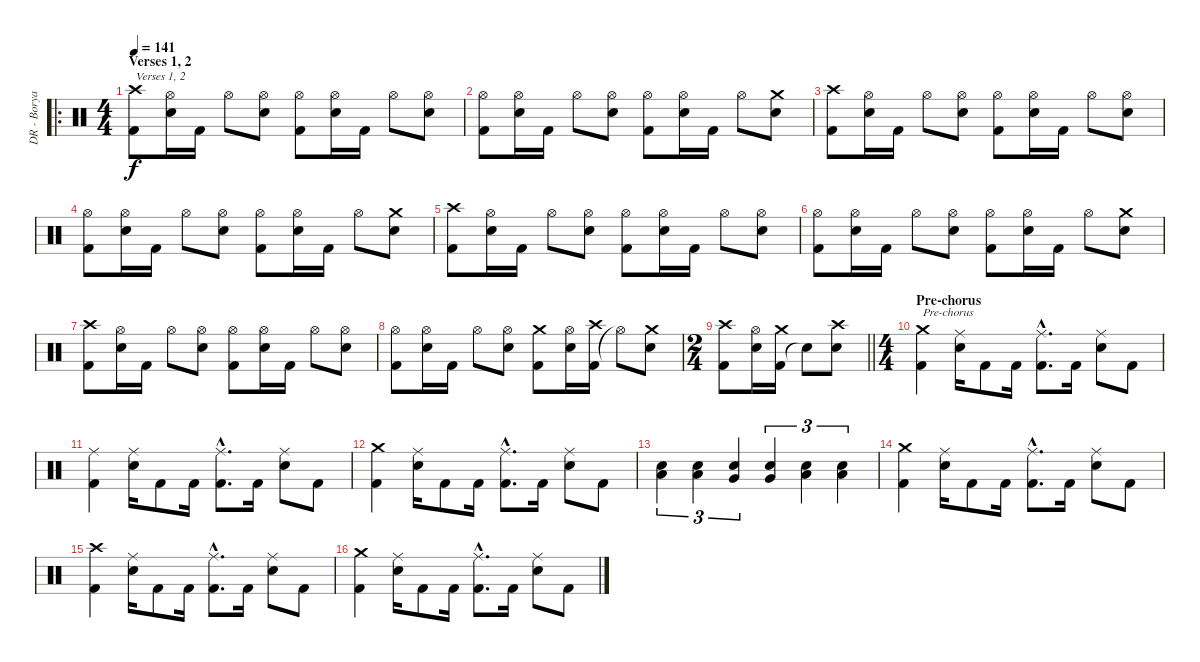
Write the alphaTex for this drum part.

\track ("DR - Borya" "DR - Borya") {instrument percussion}
\staff {score}
\articulation defaults
\ro
\ts (4 4)
\section ("" "Verses 1, 2")
\tempo 141
\clef neutral
\ks c
("Kick (hit) 2" "Crash high (hit)").8{txt "Verses 1, 2" dy f} ("Electric Snare (hit)" "Hi-Hat (open)").16 "Kick (hit) 2".16 "Hi-Hat (open)".8 ("Electric Snare (hit)" "Hi-Hat (open)").8 ("Kick (hit) 2" "Hi-Hat (open)").8 ("Electric Snare (hit)" "Hi-Hat (open)").16 "Kick (hit) 2".16 "Hi-Hat (open)".8 ("Electric Snare (hit)" "Hi-Hat (open)").8 |
("Kick (hit) 2" "Hi-Hat (open)").8 ("Electric Snare (hit)" "Hi-Hat (open)").16 "Kick (hit) 2".16 "Hi-Hat (open)".8 ("Electric Snare (hit)" "Hi-Hat (open)").8 ("Kick (hit) 2" "Hi-Hat (open)").8 ("Electric Snare (hit)" "Hi-Hat (open)").16 "Kick (hit) 2".16 "Hi-Hat (open)".8 ("Electric Snare (hit)" "Crash medium (hit)").8 |
("Kick (hit) 2" "Crash high (hit)").8 ("Electric Snare (hit)" "Hi-Hat (open)").16 "Kick (hit) 2".16 "Hi-Hat (open)".8 ("Electric Snare (hit)" "Hi-Hat (open)").8 ("Kick (hit) 2" "Hi-Hat (open)").8 ("Electric Snare (hit)" "Hi-Hat (open)").16 "Kick (hit) 2".16 "Hi-Hat (open)".8 ("Electric Snare (hit)" "Hi-Hat (open)").8 |
("Kick (hit) 2" "Hi-Hat (open)").8 ("Electric Snare (hit)" "Hi-Hat (open)").16 "Kick (hit) 2".16 "Hi-Hat (open)".8 ("Electric Snare (hit)" "Hi-Hat (open)").8 ("Kick (hit) 2" "Hi-Hat (open)").8 ("Electric Snare (hit)" "Hi-Hat (open)").16 "Kick (hit) 2".16 "Hi-Hat (open)".8 ("Electric Snare (hit)" "Crash medium (hit)").8 |
("Kick (hit) 2" "Crash high (hit)").8 ("Electric Snare (hit)" "Hi-Hat (open)").16 "Kick (hit) 2".16 "Hi-Hat (open)".8 ("Electric Snare (hit)" "Hi-Hat (open)").8 ("Kick (hit) 2" "Hi-Hat (open)").8 ("Electric Snare (hit)" "Hi-Hat (open)").16 "Kick (hit) 2".16 "Hi-Hat (open)".8 ("Electric Snare (hit)" "Hi-Hat (open)").8 |
("Kick (hit) 2" "Hi-Hat (open)").8 ("Electric Snare (hit)" "Hi-Hat (open)").16 "Kick (hit) 2".16 "Hi-Hat (open)".8 ("Electric Snare (hit)" "Hi-Hat (open)").8 ("Kick (hit) 2" "Hi-Hat (open)").8 ("Electric Snare (hit)" "Hi-Hat (open)").16 "Kick (hit) 2".16 "Hi-Hat (open)".8 ("Electric Snare (hit)" "Crash medium (hit)").8 |
("Kick (hit) 2" "Crash high (hit)").8 ("Electric Snare (hit)" "Hi-Hat (open)").16 "Kick (hit) 2".16 "Hi-Hat (open)".8 ("Electric Snare (hit)" "Hi-Hat (open)").8 ("Kick (hit) 2" "Hi-Hat (open)").8 ("Electric Snare (hit)" "Hi-Hat (open)").16 "Kick (hit) 2".16 "Hi-Hat (open)".8 ("Electric Snare (hit)" "Hi-Hat (open)").8 |
("Kick (hit) 2" "Hi-Hat (open)").8 ("Electric Snare (hit)" "Hi-Hat (open)").16 "Kick (hit) 2".16 "Hi-Hat (open)".8 ("Electric Snare (hit)" "Hi-Hat (open)").8 ("Kick (hit) 2" "Crash medium (hit)").8 ("Electric Snare (hit)" "Hi-Hat (open)").16 ("Kick (hit) 2" "Crash high (hit)").16 "Hi-Hat (open)"{t}.8 ("Electric Snare (hit)" "Crash medium (hit)").8 |
\ts (2 4)
\barLineRight lightlight
("Kick (hit) 2" "Crash high (hit)").8 ("Electric Snare (hit)" "Hi-Hat (open)").16 ("Kick (hit) 2" "Crash medium (hit)").16 "Snare (hit)"{t}.8 ("Electric Snare (hit)" "Crash high (hit)").8 |
\ts (4 4)
\section ("" "Pre-chorus")
("Kick (hit) 2" "Crash medium (hit)").4{txt "Pre-chorus"} ("Electric Snare (hit)" "Ride (middle)").16 "Kick (hit) 2".8 "Kick (hit) 2".16 ("Kick (hit) 2"{hac} "Ride (middle)"{hac}).8{d} "Kick (hit) 2".16 ("Electric Snare (hit)" "Ride (middle)").8 "Kick (hit) 2".8 |
("Kick (hit) 2" "Ride (middle)").4 ("Electric Snare (hit)" "Ride (middle)").16 "Kick (hit) 2".8 "Kick (hit) 2".16 ("Kick (hit) 2"{hac} "Ride (middle)"{hac}).8{d} "Kick (hit) 2".16 ("Electric Snare (hit)" "Ride (middle)").8 "Kick (hit) 2".8 |
("Kick (hit) 2" "Crash medium (hit)").4 ("Electric Snare (hit)" "Ride (middle)").16 "Kick (hit) 2".8 "Kick (hit) 2".16 ("Kick (hit) 2"{hac} "Ride (middle)"{hac}).8{d} "Kick (hit) 2".16 ("Electric Snare (hit)" "Ride (middle)").8 "Kick (hit) 2".8 |
("Electric Snare (hit)" "Low Tom (hit)").4{tu (3 2)} ("Electric Snare (hit)" "Low Tom (hit)").4{tu (3 2)} ("Electric Snare (hit)" "Very Low Tom (hit)").4{tu (3 2)} ("Electric Snare (hit)" "Very Low Tom (hit)").4{tu (3 2)} ("Electric Snare (hit)" "Low Floor Tom (hit)").4{tu (3 2)} ("Electric Snare (hit)" "Low Floor Tom (hit)").4{tu (3 2)} |
("Kick (hit) 2" "Crash medium (hit)").4 ("Electric Snare (hit)" "Ride (middle)").16 "Kick (hit) 2".8 "Kick (hit) 2".16 ("Kick (hit) 2"{hac} "Ride (middle)"{hac}).8{d} "Kick (hit) 2".16 ("Electric Snare (hit)" "Ride (middle)").8 "Kick (hit) 2".8 |
("Kick (hit) 2" "Crash high (hit)").4 ("Electric Snare (hit)" "Ride (middle)").16 "Kick (hit) 2".8 "Kick (hit) 2".16 ("Kick (hit) 2"{hac} "Ride (middle)"{hac}).8{d} "Kick (hit) 2".16 ("Electric Snare (hit)" "Ride (middle)").8 "Kick (hit) 2".8 |
("Kick (hit) 2" "Crash medium (hit)").4 ("Electric Snare (hit)" "Ride (middle)").16 "Kick (hit) 2".8 "Kick (hit) 2".16 ("Kick (hit) 2"{hac} "Ride (middle)"{hac}).8{d} "Kick (hit) 2".16 ("Electric Snare (hit)" "Ride (middle)").8 "Kick (hit) 2".8
